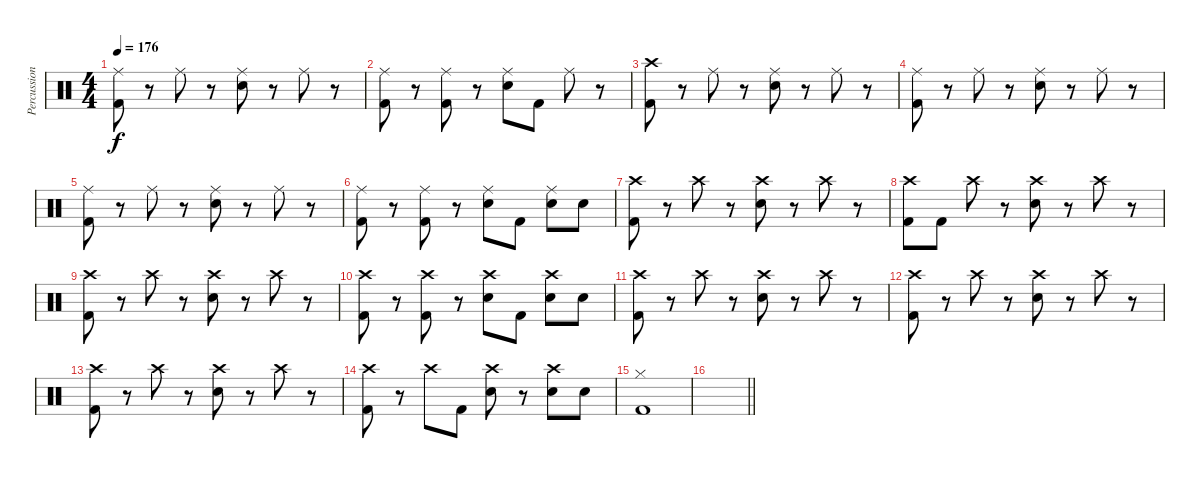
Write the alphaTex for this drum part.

\track ("Percussion" "Percussion") {instrument percussion}
\staff {score}
\articulation defaults
\ts (4 4)
\tempo 176
\clef neutral
\ks c
("Ride (middle)" "Kick (hit) 2").8{dy f} r.8 "Ride (middle)".8 r.8 ("Ride (middle)" "Snare (hit) 2").8 r.8 "Ride (middle)".8 r.8 |
("Ride (middle)" "Kick (hit) 2").8 r.8 ("Ride (middle)" "Kick (hit) 2").8 r.8 ("Ride (middle)" "Snare (hit) 2").8 "Kick (hit) 2".8 "Ride (middle)".8 r.8 |
("Crash high (hit)" "Kick (hit) 2").8 r.8 "Ride (middle)".8 r.8 ("Ride (middle)" "Snare (hit) 2").8 r.8 "Ride (middle)".8 r.8 |
("Ride (middle)" "Kick (hit) 2").8 r.8 "Ride (middle)".8 r.8 ("Ride (middle)" "Snare (hit) 2").8 r.8 "Ride (middle)".8 r.8 |
("Ride (middle)" "Kick (hit) 2").8 r.8 "Ride (middle)".8 r.8 ("Ride (middle)" "Snare (hit) 2").8 r.8 "Ride (middle)".8 r.8 |
("Ride (middle)" "Kick (hit) 2").8 r.8 ("Ride (middle)" "Kick (hit) 2").8 r.8 ("Ride (middle)" "Snare (hit) 2").8 "Kick (hit) 2".8 ("Ride (middle)" "Snare (hit) 2").8 "Snare (hit) 2".8 |
("Crash high (hit)" "Kick (hit) 2").8 r.8 "Crash high (hit)".8 r.8 ("Crash high (hit)" "Snare (hit) 2").8 r.8 "Crash high (hit)".8 r.8 |
("Crash high (hit)" "Kick (hit) 2").8 "Kick (hit) 2".8 "Crash high (hit)".8 r.8 ("Crash high (hit)" "Snare (hit) 2").8 r.8 "Crash high (hit)".8 r.8 |
("Crash high (hit)" "Kick (hit) 2").8 r.8 "Crash high (hit)".8 r.8 ("Crash high (hit)" "Snare (hit) 2").8 r.8 "Crash high (hit)".8 r.8 |
("Crash high (hit)" "Kick (hit) 2").8 r.8 ("Crash high (hit)" "Kick (hit) 2").8 r.8 ("Crash high (hit)" "Snare (hit) 2").8 "Kick (hit) 2".8 ("Crash high (hit)" "Snare (hit) 2").8 "Snare (hit) 2".8 |
("Crash high (hit)" "Kick (hit) 2").8 r.8 "Crash high (hit)".8 r.8 ("Crash high (hit)" "Snare (hit) 2").8 r.8 "Crash high (hit)".8 r.8 |
("Crash high (hit)" "Kick (hit) 2").8 r.8 "Crash high (hit)".8 r.8 ("Crash high (hit)" "Snare (hit) 2").8 r.8 "Crash high (hit)".8 r.8 |
("Crash high (hit)" "Kick (hit) 2").8 r.8 "Crash high (hit)".8 r.8 ("Crash high (hit)" "Snare (hit) 2").8 r.8 "Crash high (hit)".8 r.8 |
("Crash high (hit)" "Kick (hit) 2").8 r.8 "Crash high (hit)".8 "Kick (hit) 2".8 ("Crash high (hit)" "Snare (hit) 2").8 r.8 ("Crash high (hit)" "Snare (hit) 2").8 "Snare (hit) 2".8 |
("Hi-Hat (closed)" "Kick (hit) 2").1 |
\barLineRight lightlight
